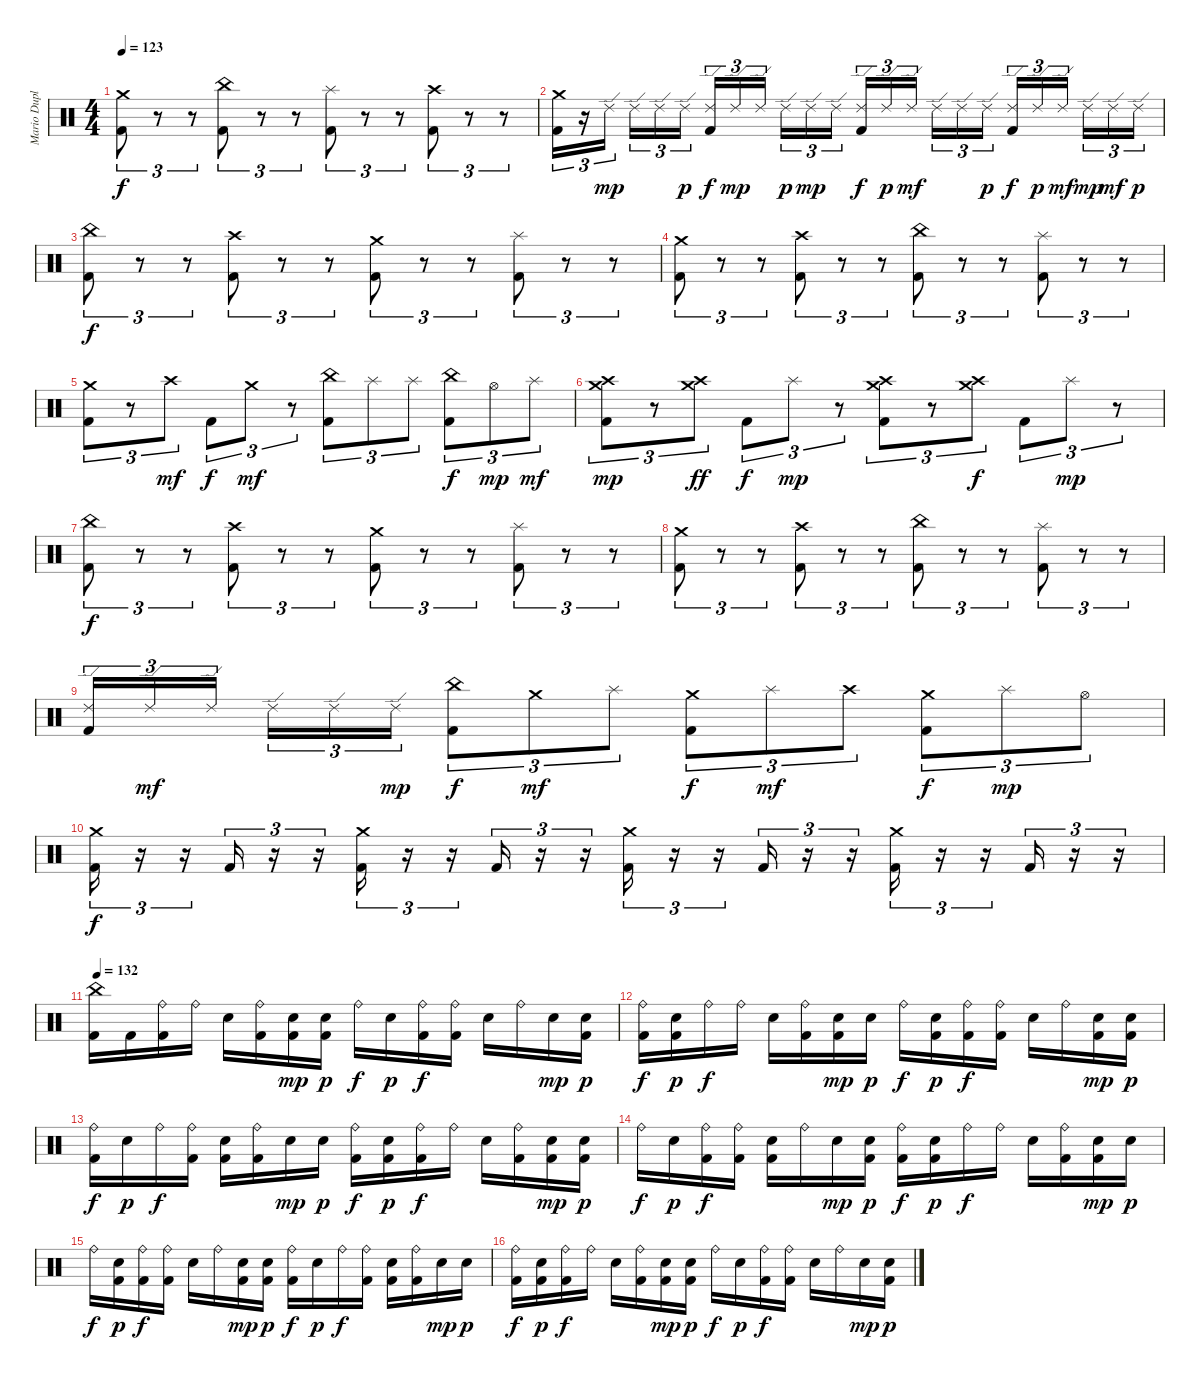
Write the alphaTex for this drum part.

\track ("Mario Duplantier" "Mario Dupl") {instrument percussion}
\staff {score}
\articulation defaults
\ts (4 4)
\tempo 123
\clef neutral
\ks c
("Crash medium (hit)" "Kick (hit) 2").8{tu (3 2) dy f} r.8{tu (3 2)} r.8{tu (3 2)} ("China (hit)" "Kick (hit) 2").8{tu (3 2)} r.8{tu (3 2)} r.8{tu (3 2)} ("Splash (hit)" "Kick (hit) 2").8{tu (3 2)} r.8{tu (3 2)} r.8{tu (3 2)} ("Crash high (hit)" "Kick (hit) 2").8{tu (3 2)} r.8{tu (3 2)} r.8{tu (3 2)} |
("Crash medium (hit)" "Kick (hit) 2").16{tu (3 2)} r.16{tu (3 2)} "Ride (edge) 2".16{tu (3 2) dy mp beam splitsecondary} "Ride (edge) 2".16{tu (3 2)} "Ride (edge) 2".16{tu (3 2)} "Ride (edge) 2".16{tu (3 2) dy p} ("Ride (edge) 2" "Kick (hit) 2").16{tu (3 2) dy f} "Ride (edge) 2".16{tu (3 2) dy mp} "Ride (edge) 2".16{tu (3 2) beam splitsecondary} "Ride (edge) 2".16{tu (3 2) dy p} "Ride (edge) 2".16{tu (3 2) dy mp} "Ride (edge) 2".16{tu (3 2)} ("Ride (edge) 2" "Kick (hit) 2").16{tu (3 2) dy f} "Ride (edge) 2".16{tu (3 2) dy p} "Ride (edge) 2".16{tu (3 2) dy mf beam splitsecondary} "Ride (edge) 2".16{tu (3 2)} "Ride (edge) 2".16{tu (3 2)} "Ride (edge) 2".16{tu (3 2) dy p} ("Ride (edge) 2" "Kick (hit) 2").16{tu (3 2) dy f} "Ride (edge) 2".16{tu (3 2) dy p} "Ride (edge) 2".16{tu (3 2) dy mf beam splitsecondary} "Ride (edge) 2".16{tu (3 2) dy mp} "Ride (edge) 2".16{tu (3 2) dy mf} "Ride (edge) 2".16{tu (3 2) dy p} |
("China (hit)" "Kick (hit) 2").8{tu (3 2) dy f} r.8{tu (3 2)} r.8{tu (3 2)} ("Crash high (hit)" "Kick (hit) 2").8{tu (3 2)} r.8{tu (3 2)} r.8{tu (3 2)} ("Crash medium (hit)" "Kick (hit) 2").8{tu (3 2)} r.8{tu (3 2)} r.8{tu (3 2)} ("Splash (hit)" "Kick (hit) 2").8{tu (3 2)} r.8{tu (3 2)} r.8{tu (3 2)} |
("Crash medium (hit)" "Kick (hit) 2").8{tu (3 2)} r.8{tu (3 2)} r.8{tu (3 2)} ("Crash high (hit)" "Kick (hit) 2").8{tu (3 2)} r.8{tu (3 2)} r.8{tu (3 2)} ("China (hit)" "Kick (hit) 2").8{tu (3 2)} r.8{tu (3 2)} r.8{tu (3 2)} ("Splash (hit)" "Kick (hit) 2").8{tu (3 2)} r.8{tu (3 2)} r.8{tu (3 2)} |
("Crash medium (hit)" "Kick (hit) 2").8{tu (3 2)} r.8{tu (3 2)} "Crash high (hit)".8{tu (3 2) dy mf} "Kick (hit) 2".8{tu (3 2) dy f} "Crash medium (hit)".8{tu (3 2) dy mf} r.8{tu (3 2)} ("China (hit)" "Kick (hit) 2").8{tu (3 2)} "Splash (hit)".8{tu (3 2)} "Splash (hit)".8{tu (3 2)} ("China (hit)" "Kick (hit) 2").8{tu (3 2) dy f} "Hi-Hat (open)".8{tu (3 2) dy mp} "Splash (hit)".8{tu (3 2) dy mf} |
("Crash high (hit)" "Crash medium (hit)" "Kick (hit) 2").8{tu (3 2) dy mp} r.8{tu (3 2)} ("Crash high (hit)" "Crash medium (hit)").8{tu (3 2) dy ff} "Kick (hit) 2".8{tu (3 2) dy f} "Splash (hit)".8{tu (3 2) dy mp} r.8{tu (3 2)} ("Crash high (hit)" "Crash medium (hit)" "Kick (hit) 2").8{tu (3 2)} r.8{tu (3 2)} ("Crash high (hit)" "Crash medium (hit)").8{tu (3 2) dy f} "Kick (hit) 2".8{tu (3 2)} "Splash (hit)".8{tu (3 2) dy mp} r.8{tu (3 2)} |
("China (hit)" "Kick (hit) 2").8{tu (3 2) dy f} r.8{tu (3 2)} r.8{tu (3 2)} ("Crash high (hit)" "Kick (hit) 2").8{tu (3 2)} r.8{tu (3 2)} r.8{tu (3 2)} ("Crash medium (hit)" "Kick (hit) 2").8{tu (3 2)} r.8{tu (3 2)} r.8{tu (3 2)} ("Splash (hit)" "Kick (hit) 2").8{tu (3 2)} r.8{tu (3 2)} r.8{tu (3 2)} |
("Crash medium (hit)" "Kick (hit) 2").8{tu (3 2)} r.8{tu (3 2)} r.8{tu (3 2)} ("Crash high (hit)" "Kick (hit) 2").8{tu (3 2)} r.8{tu (3 2)} r.8{tu (3 2)} ("China (hit)" "Kick (hit) 2").8{tu (3 2)} r.8{tu (3 2)} r.8{tu (3 2)} ("Splash (hit)" "Kick (hit) 2").8{tu (3 2)} r.8{tu (3 2)} r.8{tu (3 2)} |
("Ride (edge) 2" "Kick (hit) 2").16{tu (3 2)} "Ride (edge) 2".16{tu (3 2) dy mf} "Ride (edge) 2".16{tu (3 2) beam splitsecondary} "Ride (edge) 2".16{tu (3 2)} "Ride (edge) 2".16{tu (3 2)} "Ride (edge) 2".16{tu (3 2) dy mp} ("China (hit)" "Kick (hit) 2").8{tu (3 2) dy f} "Crash medium (hit)".8{tu (3 2) dy mf} "Splash (hit)".8{tu (3 2)} ("Crash medium (hit)" "Kick (hit) 2").8{tu (3 2) dy f} "Splash (hit)".8{tu (3 2) dy mf} "Crash high (hit)".8{tu (3 2)} ("Crash medium (hit)" "Kick (hit) 2").8{tu (3 2) dy f} "Splash (hit)".8{tu (3 2) dy mp} "Hi-Hat (open)".8{tu (3 2)} |
("Crash medium (hit)" "Kick (hit) 2").16{tu (3 2) dy f} r.16{tu (3 2)} r.16{tu (3 2)} "Kick (hit) 2".16{tu (3 2)} r.16{tu (3 2)} r.16{tu (3 2)} ("Crash medium (hit)" "Kick (hit) 2").16{tu (3 2)} r.16{tu (3 2)} r.16{tu (3 2)} "Kick (hit) 2".16{tu (3 2)} r.16{tu (3 2)} r.16{tu (3 2)} ("Crash medium (hit)" "Kick (hit) 2").16{tu (3 2)} r.16{tu (3 2)} r.16{tu (3 2)} "Kick (hit) 2".16{tu (3 2)} r.16{tu (3 2)} r.16{tu (3 2)} ("Crash medium (hit)" "Kick (hit) 2").16{tu (3 2)} r.16{tu (3 2)} r.16{tu (3 2)} "Kick (hit) 2".16{tu (3 2)} r.16{tu (3 2)} r.16{tu (3 2)} |
\tempo 132
("China (hit)" "Kick (hit) 2").16 "Kick (hit) 2".16 ("Ride (bell)" "Kick (hit) 2").16 "Ride (bell)".16 "Electric Snare (hit)".16 ("Ride (bell)" "Kick (hit) 2").16 ("Electric Snare (hit)" "Kick (hit) 2").16{dy mp} ("Electric Snare (hit)" "Kick (hit) 2").16{dy p} "Ride (bell)".16{dy f} "Electric Snare (hit)".16{dy p} ("Ride (bell)" "Kick (hit) 2").16{dy f} ("Ride (bell)" "Kick (hit) 2").16 "Electric Snare (hit)".16 "Ride (bell)".16 "Electric Snare (hit)".16{dy mp} ("Electric Snare (hit)" "Kick (hit) 2").16{dy p} |
("Ride (bell)" "Kick (hit) 2").16{dy f} ("Electric Snare (hit)" "Kick (hit) 2").16{dy p} "Ride (bell)".16{dy f} "Ride (bell)".16 "Electric Snare (hit)".16 ("Ride (bell)" "Kick (hit) 2").16 ("Electric Snare (hit)" "Kick (hit) 2").16{dy mp} "Electric Snare (hit)".16{dy p} "Ride (bell)".16{dy f} ("Electric Snare (hit)" "Kick (hit) 2").16{dy p} ("Ride (bell)" "Kick (hit) 2").16{dy f} ("Ride (bell)" "Kick (hit) 2").16 "Electric Snare (hit)".16 "Ride (bell)".16 ("Electric Snare (hit)" "Kick (hit) 2").16{dy mp} ("Electric Snare (hit)" "Kick (hit) 2").16{dy p} |
("Ride (bell)" "Kick (hit) 2").16{dy f} "Electric Snare (hit)".16{dy p} "Ride (bell)".16{dy f} ("Ride (bell)" "Kick (hit) 2").16 ("Electric Snare (hit)" "Kick (hit) 2").16 ("Ride (bell)" "Kick (hit) 2").16 "Electric Snare (hit)".16{dy mp} "Electric Snare (hit)".16{dy p} ("Ride (bell)" "Kick (hit) 2").16{dy f} ("Electric Snare (hit)" "Kick (hit) 2").16{dy p} ("Ride (bell)" "Kick (hit) 2").16{dy f} "Ride (bell)".16 "Electric Snare (hit)".16 ("Ride (bell)" "Kick (hit) 2").16 ("Electric Snare (hit)" "Kick (hit) 2").16{dy mp} ("Electric Snare (hit)" "Kick (hit) 2").16{dy p} |
"Ride (bell)".16{dy f} "Electric Snare (hit)".16{dy p} ("Ride (bell)" "Kick (hit) 2").16{dy f} ("Ride (bell)" "Kick (hit) 2").16 ("Electric Snare (hit)" "Kick (hit) 2").16 "Ride (bell)".16 "Electric Snare (hit)".16{dy mp} ("Electric Snare (hit)" "Kick (hit) 2").16{dy p} ("Ride (bell)" "Kick (hit) 2").16{dy f} ("Electric Snare (hit)" "Kick (hit) 2").16{dy p} "Ride (bell)".16{dy f} "Ride (bell)".16 "Electric Snare (hit)".16 ("Ride (bell)" "Kick (hit) 2").16 ("Electric Snare (hit)" "Kick (hit) 2").16{dy mp} "Electric Snare (hit)".16{dy p} |
"Ride (bell)".16{dy f} ("Electric Snare (hit)" "Kick (hit) 2").16{dy p} ("Ride (bell)" "Kick (hit) 2").16{dy f} ("Ride (bell)" "Kick (hit) 2").16 "Electric Snare (hit)".16 "Ride (bell)".16 ("Electric Snare (hit)" "Kick (hit) 2").16{dy mp} ("Electric Snare (hit)" "Kick (hit) 2").16{dy p} ("Ride (bell)" "Kick (hit) 2").16{dy f} "Electric Snare (hit)".16{dy p} "Ride (bell)".16{dy f} ("Ride (bell)" "Kick (hit) 2").16 ("Electric Snare (hit)" "Kick (hit) 2").16 ("Ride (bell)" "Kick (hit) 2").16 "Electric Snare (hit)".16{dy mp} "Electric Snare (hit)".16{dy p} |
("Ride (bell)" "Kick (hit) 2").16{dy f} ("Electric Snare (hit)" "Kick (hit) 2").16{dy p} ("Ride (bell)" "Kick (hit) 2").16{dy f} "Ride (bell)".16 "Electric Snare (hit)".16 ("Ride (bell)" "Kick (hit) 2").16 ("Electric Snare (hit)" "Kick (hit) 2").16{dy mp} ("Electric Snare (hit)" "Kick (hit) 2").16{dy p} "Ride (bell)".16{dy f} "Electric Snare (hit)".16{dy p} ("Ride (bell)" "Kick (hit) 2").16{dy f} ("Ride (bell)" "Kick (hit) 2").16 "Electric Snare (hit)".16 "Ride (bell)".16 "Electric Snare (hit)".16{dy mp} ("Electric Snare (hit)" "Kick (hit) 2").16{dy p}
